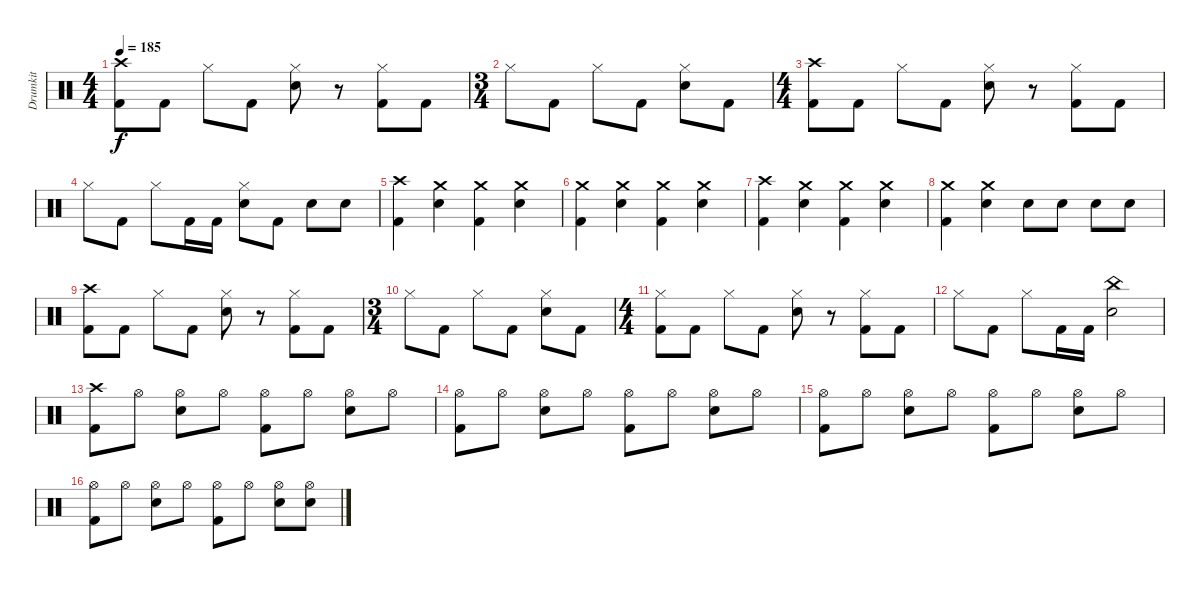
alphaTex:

\track ("Drumkit" "Drumkit") {instrument percussion}
\staff {score}
\articulation defaults
\ts (4 4)
\tempo 185
\clef neutral
\ks c
("Crash high (hit)" "Kick (hit) 2").8{dy f} "Kick (hit) 2".8 "Hi-Hat (closed)".8 "Kick (hit) 2".8 ("Hi-Hat (closed)" "Electric Snare (hit)").8 r.8 ("Hi-Hat (closed)" "Kick (hit) 2").8 "Kick (hit) 2".8 |
\ts (3 4)
"Hi-Hat (closed)".8 "Kick (hit) 2".8 "Hi-Hat (closed)".8 "Kick (hit) 2".8 ("Hi-Hat (closed)" "Electric Snare (hit)").8 "Kick (hit) 2".8 |
\ts (4 4)
("Crash high (hit)" "Kick (hit) 2").8 "Kick (hit) 2".8 "Hi-Hat (closed)".8 "Kick (hit) 2".8 ("Hi-Hat (closed)" "Electric Snare (hit)").8 r.8 ("Hi-Hat (closed)" "Kick (hit) 2").8 "Kick (hit) 2".8 |
"Hi-Hat (closed)".8 "Kick (hit) 2".8 "Hi-Hat (closed)".8 "Kick (hit) 2".16 "Kick (hit) 2".16 ("Hi-Hat (closed)" "Electric Snare (hit)").8 "Kick (hit) 2".8 "Electric Snare (hit)".8 "Electric Snare (hit)".8 |
("Crash high (hit)" "Kick (hit) 2").4 ("Crash medium (hit)" "Electric Snare (hit)").4 ("Crash medium (hit)" "Kick (hit) 2").4 ("Crash medium (hit)" "Electric Snare (hit)").4 |
("Crash medium (hit)" "Kick (hit) 2").4 ("Crash medium (hit)" "Electric Snare (hit)").4 ("Crash medium (hit)" "Kick (hit) 2").4 ("Crash medium (hit)" "Electric Snare (hit)").4 |
("Crash high (hit)" "Kick (hit) 2").4 ("Crash medium (hit)" "Electric Snare (hit)").4 ("Crash medium (hit)" "Kick (hit) 2").4 ("Crash medium (hit)" "Electric Snare (hit)").4 |
("Crash medium (hit)" "Kick (hit) 2").4 ("Crash medium (hit)" "Electric Snare (hit)").4 "Electric Snare (hit)".8 "Electric Snare (hit)".8 "Electric Snare (hit)".8 "Electric Snare (hit)".8 |
("Crash high (hit)" "Kick (hit) 2").8 "Kick (hit) 2".8 "Hi-Hat (closed)".8 "Kick (hit) 2".8 ("Hi-Hat (closed)" "Electric Snare (hit)").8 r.8 ("Hi-Hat (closed)" "Kick (hit) 2").8 "Kick (hit) 2".8 |
\ts (3 4)
"Hi-Hat (closed)".8 "Kick (hit) 2".8 "Hi-Hat (closed)".8 "Kick (hit) 2".8 ("Hi-Hat (closed)" "Electric Snare (hit)").8 "Kick (hit) 2".8 |
\ts (4 4)
("Hi-Hat (closed)" "Kick (hit) 2").8 "Kick (hit) 2".8 "Hi-Hat (closed)".8 "Kick (hit) 2".8 ("Hi-Hat (closed)" "Electric Snare (hit)").8 r.8 ("Hi-Hat (closed)" "Kick (hit) 2").8 "Kick (hit) 2".8 |
"Hi-Hat (closed)".8 "Kick (hit) 2".8 "Hi-Hat (closed)".8 "Kick (hit) 2".16 "Kick (hit) 2".16 ("China (hit)" "Electric Snare (hit)").2 |
("Crash high (hit)" "Kick (hit) 2").8 "Hi-Hat (open)".8 ("Hi-Hat (open)" "Electric Snare (hit)").8 "Hi-Hat (open)".8 ("Hi-Hat (open)" "Kick (hit) 2").8 "Hi-Hat (open)".8 ("Hi-Hat (open)" "Electric Snare (hit)").8 "Hi-Hat (open)".8 |
("Hi-Hat (open)" "Kick (hit) 2").8 "Hi-Hat (open)".8 ("Hi-Hat (open)" "Electric Snare (hit)").8 "Hi-Hat (open)".8 ("Hi-Hat (open)" "Kick (hit) 2").8 "Hi-Hat (open)".8 ("Hi-Hat (open)" "Electric Snare (hit)").8 "Hi-Hat (open)".8 |
("Hi-Hat (open)" "Kick (hit) 2").8 "Hi-Hat (open)".8 ("Hi-Hat (open)" "Electric Snare (hit)").8 "Hi-Hat (open)".8 ("Hi-Hat (open)" "Kick (hit) 2").8 "Hi-Hat (open)".8 ("Hi-Hat (open)" "Electric Snare (hit)").8 "Hi-Hat (open)".8 |
("Hi-Hat (open)" "Kick (hit) 2").8 "Hi-Hat (open)".8 ("Hi-Hat (open)" "Electric Snare (hit)").8 "Hi-Hat (open)".8 ("Hi-Hat (open)" "Kick (hit) 2").8 "Hi-Hat (open)".8 ("Hi-Hat (open)" "Electric Snare (hit)").8 ("Hi-Hat (open)" "Electric Snare (hit)").8
